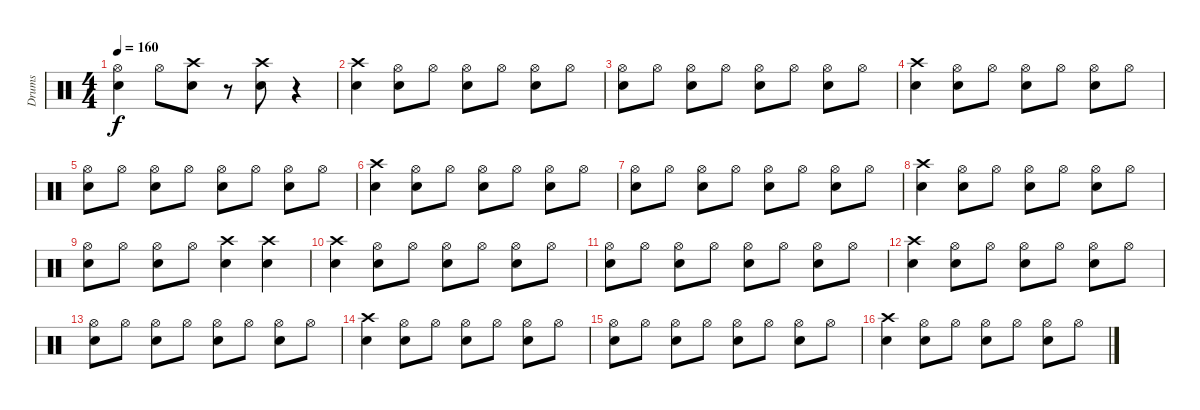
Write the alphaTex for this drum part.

\track ("Drums" "Drums") {instrument percussion}
\staff {score}
\articulation defaults
\ts (4 4)
\tempo 160
\clef neutral
\ks c
("Hi-Hat (open)" "Snare (hit) 2").4{dy f} "Hi-Hat (open)".8 ("Crash high (hit)" "Snare (hit) 2").8 r.8 ("Crash high (hit)" "Snare (hit) 2").8 r.4 |
("Crash high (hit)" "Snare (hit) 2").4 ("Hi-Hat (open)" "Snare (hit) 2").8 "Hi-Hat (open)".8 ("Hi-Hat (open)" "Snare (hit) 2").8 "Hi-Hat (open)".8 ("Hi-Hat (open)" "Snare (hit) 2").8 "Hi-Hat (open)".8 |
("Hi-Hat (open)" "Snare (hit) 2").8 "Hi-Hat (open)".8 ("Hi-Hat (open)" "Snare (hit) 2").8 "Hi-Hat (open)".8 ("Hi-Hat (open)" "Snare (hit) 2").8 "Hi-Hat (open)".8 ("Hi-Hat (open)" "Snare (hit) 2").8 "Hi-Hat (open)".8 |
("Crash high (hit)" "Snare (hit) 2").4 ("Hi-Hat (open)" "Snare (hit) 2").8 "Hi-Hat (open)".8 ("Hi-Hat (open)" "Snare (hit) 2").8 "Hi-Hat (open)".8 ("Hi-Hat (open)" "Snare (hit) 2").8 "Hi-Hat (open)".8 |
("Hi-Hat (open)" "Snare (hit) 2").8 "Hi-Hat (open)".8 ("Hi-Hat (open)" "Snare (hit) 2").8 "Hi-Hat (open)".8 ("Hi-Hat (open)" "Snare (hit) 2").8 "Hi-Hat (open)".8 ("Hi-Hat (open)" "Snare (hit) 2").8 "Hi-Hat (open)".8 |
("Crash high (hit)" "Snare (hit) 2").4 ("Hi-Hat (open)" "Snare (hit) 2").8 "Hi-Hat (open)".8 ("Hi-Hat (open)" "Snare (hit) 2").8 "Hi-Hat (open)".8 ("Hi-Hat (open)" "Snare (hit) 2").8 "Hi-Hat (open)".8 |
("Hi-Hat (open)" "Snare (hit) 2").8 "Hi-Hat (open)".8 ("Hi-Hat (open)" "Snare (hit) 2").8 "Hi-Hat (open)".8 ("Hi-Hat (open)" "Snare (hit) 2").8 "Hi-Hat (open)".8 ("Hi-Hat (open)" "Snare (hit) 2").8 "Hi-Hat (open)".8 |
("Crash high (hit)" "Snare (hit) 2").4 ("Hi-Hat (open)" "Snare (hit) 2").8 "Hi-Hat (open)".8 ("Hi-Hat (open)" "Snare (hit) 2").8 "Hi-Hat (open)".8 ("Hi-Hat (open)" "Snare (hit) 2").8 "Hi-Hat (open)".8 |
("Hi-Hat (open)" "Snare (hit) 2").8 "Hi-Hat (open)".8 ("Hi-Hat (open)" "Snare (hit) 2").8 "Hi-Hat (open)".8 ("Crash high (hit)" "Snare (hit) 2").4 ("Crash high (hit)" "Snare (hit) 2").4 |
("Crash high (hit)" "Snare (hit) 2").4 ("Hi-Hat (open)" "Snare (hit) 2").8 "Hi-Hat (open)".8 ("Hi-Hat (open)" "Snare (hit) 2").8 "Hi-Hat (open)".8 ("Hi-Hat (open)" "Snare (hit) 2").8 "Hi-Hat (open)".8 |
("Hi-Hat (open)" "Snare (hit) 2").8 "Hi-Hat (open)".8 ("Hi-Hat (open)" "Snare (hit) 2").8 "Hi-Hat (open)".8 ("Hi-Hat (open)" "Snare (hit) 2").8 "Hi-Hat (open)".8 ("Hi-Hat (open)" "Snare (hit) 2").8 "Hi-Hat (open)".8 |
("Crash high (hit)" "Snare (hit) 2").4 ("Hi-Hat (open)" "Snare (hit) 2").8 "Hi-Hat (open)".8 ("Hi-Hat (open)" "Snare (hit) 2").8 "Hi-Hat (open)".8 ("Hi-Hat (open)" "Snare (hit) 2").8 "Hi-Hat (open)".8 |
("Hi-Hat (open)" "Snare (hit) 2").8 "Hi-Hat (open)".8 ("Hi-Hat (open)" "Snare (hit) 2").8 "Hi-Hat (open)".8 ("Hi-Hat (open)" "Snare (hit) 2").8 "Hi-Hat (open)".8 ("Hi-Hat (open)" "Snare (hit) 2").8 "Hi-Hat (open)".8 |
("Crash high (hit)" "Snare (hit) 2").4 ("Hi-Hat (open)" "Snare (hit) 2").8 "Hi-Hat (open)".8 ("Hi-Hat (open)" "Snare (hit) 2").8 "Hi-Hat (open)".8 ("Hi-Hat (open)" "Snare (hit) 2").8 "Hi-Hat (open)".8 |
("Hi-Hat (open)" "Snare (hit) 2").8 "Hi-Hat (open)".8 ("Hi-Hat (open)" "Snare (hit) 2").8 "Hi-Hat (open)".8 ("Hi-Hat (open)" "Snare (hit) 2").8 "Hi-Hat (open)".8 ("Hi-Hat (open)" "Snare (hit) 2").8 "Hi-Hat (open)".8 |
("Crash high (hit)" "Snare (hit) 2").4 ("Hi-Hat (open)" "Snare (hit) 2").8 "Hi-Hat (open)".8 ("Hi-Hat (open)" "Snare (hit) 2").8 "Hi-Hat (open)".8 ("Hi-Hat (open)" "Snare (hit) 2").8 "Hi-Hat (open)".8
